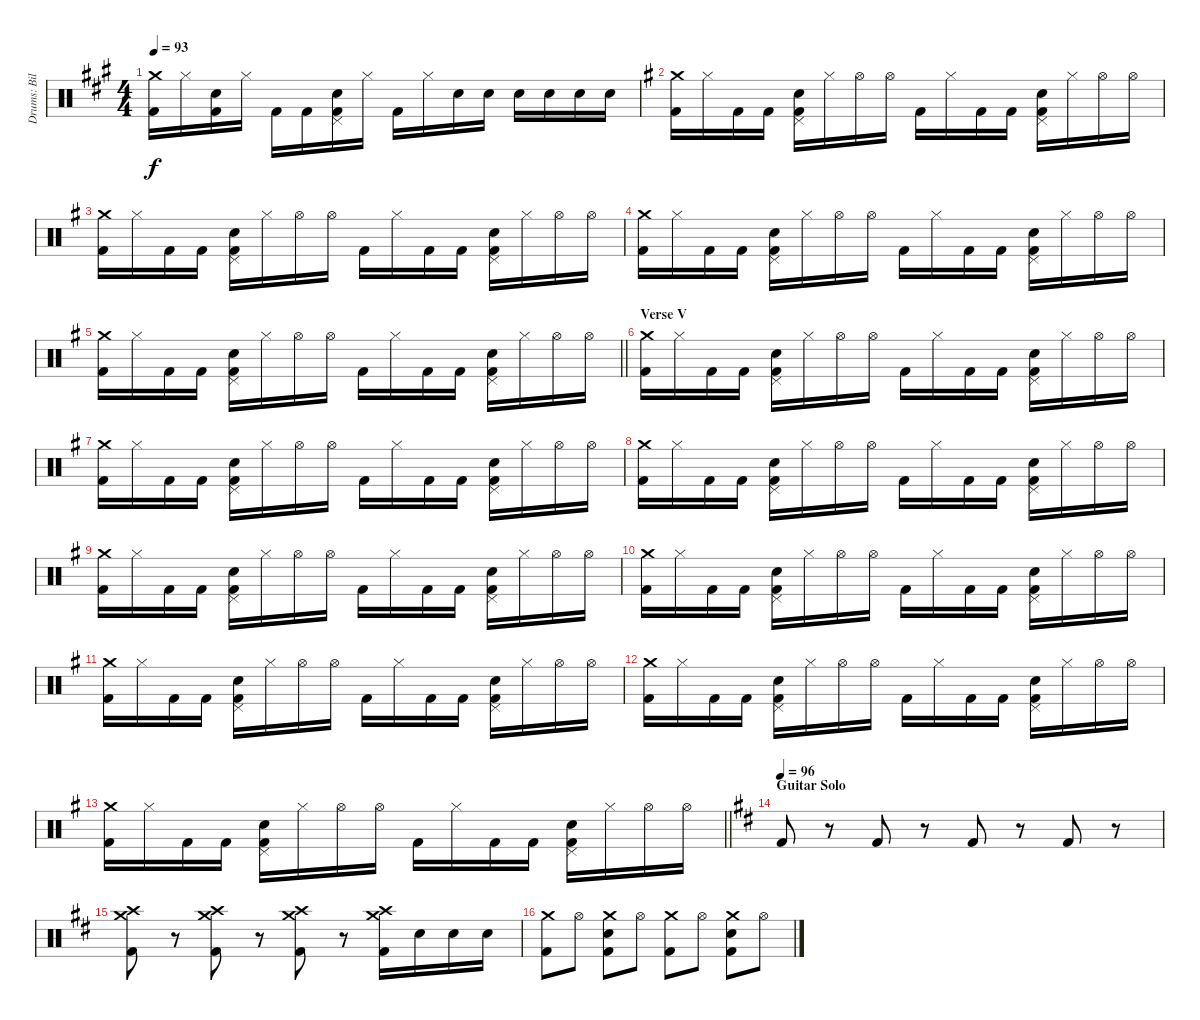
\track ("Drums: Bill" "Drums: Bil") {instrument percussion}
\staff {score}
\articulation defaults
\ts (4 4)
\tempo 93
\clef neutral
\ks a
("Crash medium (hit)" "Kick (hit) 2").16{dy f} "Hi-Hat (closed)".16 ("Snare (hit) 2" "Kick (hit) 2").16 "Hi-Hat (closed)".16 "Kick (hit) 2".16 "Kick (hit) 2".16 ("Pedal Hi-Hat (hit)" "Snare (hit) 2" "Kick (hit) 2").16 "Hi-Hat (closed)".16 "Kick (hit) 2".16 "Hi-Hat (closed)".16 "Snare (hit) 2".16 "Snare (hit) 2".16 "Snare (hit) 2".16 "Snare (hit) 2".16 "Snare (hit) 2".16 "Snare (hit) 2".16 |
\ks g
("Crash medium (hit)" "Kick (hit) 2").16 "Hi-Hat (closed)".16 "Kick (hit) 2".16 "Kick (hit) 2".16 ("Pedal Hi-Hat (hit)" "Snare (hit) 2" "Kick (hit) 2").16 "Hi-Hat (closed)".16 "Hi-Hat (open)".16 "Hi-Hat (open)".16 "Kick (hit) 2".16 "Hi-Hat (closed)".16 "Kick (hit) 2".16 "Kick (hit) 2".16 ("Pedal Hi-Hat (hit)" "Snare (hit) 2" "Kick (hit) 2").16 "Hi-Hat (closed)".16 "Hi-Hat (open)".16 "Hi-Hat (open)".16 |
("Crash medium (hit)" "Kick (hit) 2").16 "Hi-Hat (closed)".16 "Kick (hit) 2".16 "Kick (hit) 2".16 ("Pedal Hi-Hat (hit)" "Snare (hit) 2" "Kick (hit) 2").16 "Hi-Hat (closed)".16 "Hi-Hat (open)".16 "Hi-Hat (open)".16 "Kick (hit) 2".16 "Hi-Hat (closed)".16 "Kick (hit) 2".16 "Kick (hit) 2".16 ("Pedal Hi-Hat (hit)" "Snare (hit) 2" "Kick (hit) 2").16 "Hi-Hat (closed)".16 "Hi-Hat (open)".16 "Hi-Hat (open)".16 |
("Crash medium (hit)" "Kick (hit) 2").16 "Hi-Hat (closed)".16 "Kick (hit) 2".16 "Kick (hit) 2".16 ("Pedal Hi-Hat (hit)" "Snare (hit) 2" "Kick (hit) 2").16 "Hi-Hat (closed)".16 "Hi-Hat (open)".16 "Hi-Hat (open)".16 "Kick (hit) 2".16 "Hi-Hat (closed)".16 "Kick (hit) 2".16 "Kick (hit) 2".16 ("Pedal Hi-Hat (hit)" "Snare (hit) 2" "Kick (hit) 2").16 "Hi-Hat (closed)".16 "Hi-Hat (open)".16 "Hi-Hat (open)".16 |
\barLineRight lightlight
("Crash medium (hit)" "Kick (hit) 2").16 "Hi-Hat (closed)".16 "Kick (hit) 2".16 "Kick (hit) 2".16 ("Pedal Hi-Hat (hit)" "Snare (hit) 2" "Kick (hit) 2").16 "Hi-Hat (closed)".16 "Hi-Hat (open)".16 "Hi-Hat (open)".16 "Kick (hit) 2".16 "Hi-Hat (closed)".16 "Kick (hit) 2".16 "Kick (hit) 2".16 ("Pedal Hi-Hat (hit)" "Snare (hit) 2" "Kick (hit) 2").16 "Hi-Hat (closed)".16 "Hi-Hat (open)".16 "Hi-Hat (open)".16 |
\section ("" "Verse V")
("Crash medium (hit)" "Kick (hit) 2").16 "Hi-Hat (closed)".16 "Kick (hit) 2".16 "Kick (hit) 2".16 ("Pedal Hi-Hat (hit)" "Snare (hit) 2" "Kick (hit) 2").16 "Hi-Hat (closed)".16 "Hi-Hat (open)".16 "Hi-Hat (open)".16 "Kick (hit) 2".16 "Hi-Hat (closed)".16 "Kick (hit) 2".16 "Kick (hit) 2".16 ("Pedal Hi-Hat (hit)" "Snare (hit) 2" "Kick (hit) 2").16 "Hi-Hat (closed)".16 "Hi-Hat (open)".16 "Hi-Hat (open)".16 |
("Crash medium (hit)" "Kick (hit) 2").16 "Hi-Hat (closed)".16 "Kick (hit) 2".16 "Kick (hit) 2".16 ("Pedal Hi-Hat (hit)" "Snare (hit) 2" "Kick (hit) 2").16 "Hi-Hat (closed)".16 "Hi-Hat (open)".16 "Hi-Hat (open)".16 "Kick (hit) 2".16 "Hi-Hat (closed)".16 "Kick (hit) 2".16 "Kick (hit) 2".16 ("Pedal Hi-Hat (hit)" "Snare (hit) 2" "Kick (hit) 2").16 "Hi-Hat (closed)".16 "Hi-Hat (open)".16 "Hi-Hat (open)".16 |
("Crash medium (hit)" "Kick (hit) 2").16 "Hi-Hat (closed)".16 "Kick (hit) 2".16 "Kick (hit) 2".16 ("Pedal Hi-Hat (hit)" "Snare (hit) 2" "Kick (hit) 2").16 "Hi-Hat (closed)".16 "Hi-Hat (open)".16 "Hi-Hat (open)".16 "Kick (hit) 2".16 "Hi-Hat (closed)".16 "Kick (hit) 2".16 "Kick (hit) 2".16 ("Pedal Hi-Hat (hit)" "Snare (hit) 2" "Kick (hit) 2").16 "Hi-Hat (closed)".16 "Hi-Hat (open)".16 "Hi-Hat (open)".16 |
("Crash medium (hit)" "Kick (hit) 2").16 "Hi-Hat (closed)".16 "Kick (hit) 2".16 "Kick (hit) 2".16 ("Pedal Hi-Hat (hit)" "Snare (hit) 2" "Kick (hit) 2").16 "Hi-Hat (closed)".16 "Hi-Hat (open)".16 "Hi-Hat (open)".16 "Kick (hit) 2".16 "Hi-Hat (closed)".16 "Kick (hit) 2".16 "Kick (hit) 2".16 ("Pedal Hi-Hat (hit)" "Snare (hit) 2" "Kick (hit) 2").16 "Hi-Hat (closed)".16 "Hi-Hat (open)".16 "Hi-Hat (open)".16 |
("Crash medium (hit)" "Kick (hit) 2").16 "Hi-Hat (closed)".16 "Kick (hit) 2".16 "Kick (hit) 2".16 ("Pedal Hi-Hat (hit)" "Snare (hit) 2" "Kick (hit) 2").16 "Hi-Hat (closed)".16 "Hi-Hat (open)".16 "Hi-Hat (open)".16 "Kick (hit) 2".16 "Hi-Hat (closed)".16 "Kick (hit) 2".16 "Kick (hit) 2".16 ("Pedal Hi-Hat (hit)" "Snare (hit) 2" "Kick (hit) 2").16 "Hi-Hat (closed)".16 "Hi-Hat (open)".16 "Hi-Hat (open)".16 |
("Crash medium (hit)" "Kick (hit) 2").16 "Hi-Hat (closed)".16 "Kick (hit) 2".16 "Kick (hit) 2".16 ("Pedal Hi-Hat (hit)" "Snare (hit) 2" "Kick (hit) 2").16 "Hi-Hat (closed)".16 "Hi-Hat (open)".16 "Hi-Hat (open)".16 "Kick (hit) 2".16 "Hi-Hat (closed)".16 "Kick (hit) 2".16 "Kick (hit) 2".16 ("Pedal Hi-Hat (hit)" "Snare (hit) 2" "Kick (hit) 2").16 "Hi-Hat (closed)".16 "Hi-Hat (open)".16 "Hi-Hat (open)".16 |
("Crash medium (hit)" "Kick (hit) 2").16 "Hi-Hat (closed)".16 "Kick (hit) 2".16 "Kick (hit) 2".16 ("Pedal Hi-Hat (hit)" "Snare (hit) 2" "Kick (hit) 2").16 "Hi-Hat (closed)".16 "Hi-Hat (open)".16 "Hi-Hat (open)".16 "Kick (hit) 2".16 "Hi-Hat (closed)".16 "Kick (hit) 2".16 "Kick (hit) 2".16 ("Pedal Hi-Hat (hit)" "Snare (hit) 2" "Kick (hit) 2").16 "Hi-Hat (closed)".16 "Hi-Hat (open)".16 "Hi-Hat (open)".16 |
\barLineRight lightlight
("Crash medium (hit)" "Kick (hit) 2").16 "Hi-Hat (closed)".16 "Kick (hit) 2".16 "Kick (hit) 2".16 ("Pedal Hi-Hat (hit)" "Snare (hit) 2" "Kick (hit) 2").16 "Hi-Hat (closed)".16 "Hi-Hat (open)".16 "Hi-Hat (open)".16 "Kick (hit) 2".16 "Hi-Hat (closed)".16 "Kick (hit) 2".16 "Kick (hit) 2".16 ("Pedal Hi-Hat (hit)" "Snare (hit) 2" "Kick (hit) 2").16 "Hi-Hat (closed)".16 "Hi-Hat (open)".16 "Hi-Hat (open)".16 |
\section ("" "Guitar Solo")
\tempo 96
\ks d "Kick (hit) 2".8
r.8 "Kick (hit) 2".8 r.8 "Kick (hit) 2".8 r.8 "Kick (hit) 2".8 r.8 |
("Crash medium (hit)" "Crash high (hit)" "Kick (hit) 2").8 r.8 ("Crash medium (hit)" "Crash high (hit)" "Kick (hit) 2").8 r.8 ("Crash medium (hit)" "Crash high (hit)" "Kick (hit) 2").8 r.8 ("Crash medium (hit)" "Crash high (hit)" "Kick (hit) 2").16 "Snare (hit) 2".16 "Snare (hit) 2".16 "Snare (hit) 2".16 |
("Crash medium (hit)" "Kick (hit) 2").8 "Hi-Hat (open)".8 ("Crash medium (hit)" "Snare (hit) 2" "Kick (hit) 2").8 "Hi-Hat (open)".8 ("Crash medium (hit)" "Kick (hit) 2").8 "Hi-Hat (open)".8 ("Crash medium (hit)" "Snare (hit) 2" "Kick (hit) 2").8 "Hi-Hat (open)".8
